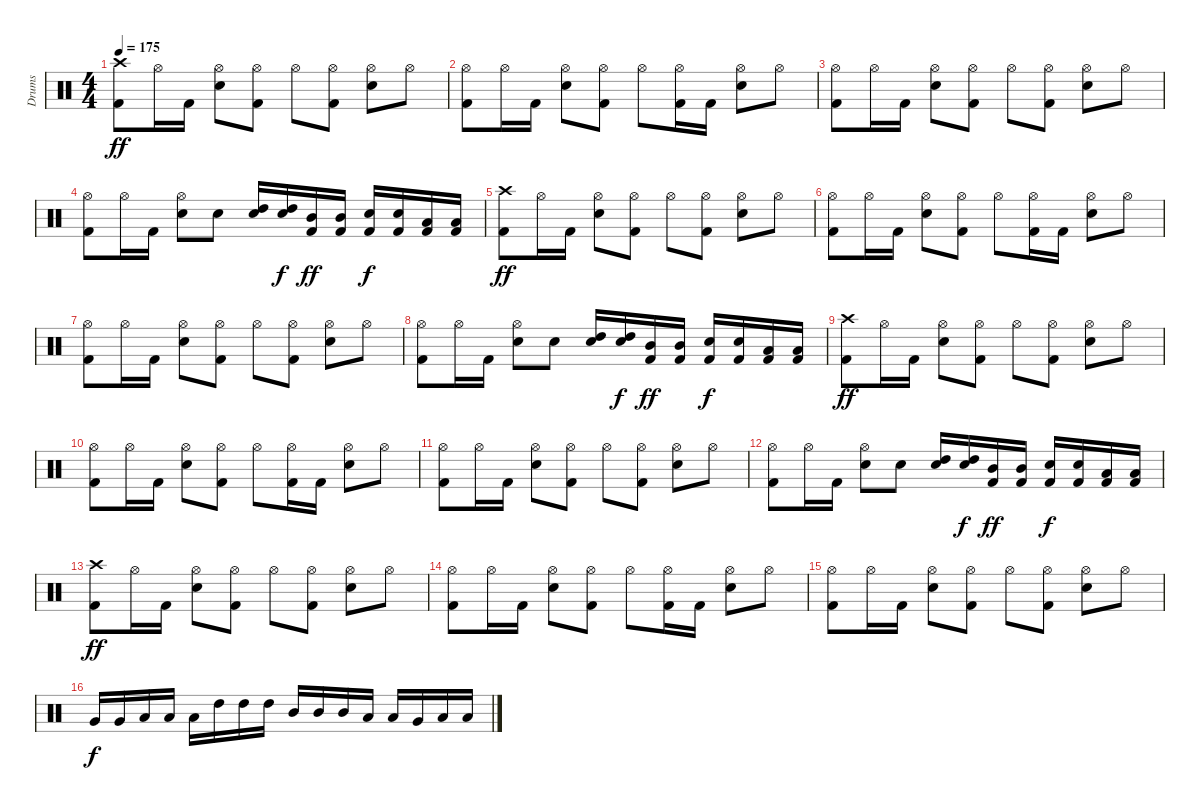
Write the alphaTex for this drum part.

\track ("Drums" "Drums") {instrument percussion}
\staff {score}
\articulation defaults
\ts (4 4)
\tempo 175
\clef neutral
\ks c
("Kick (hit) 2" "Crash high (hit)").8{dy ff} "Hi-Hat (open)".16 "Kick (hit) 2".16 ("Hi-Hat (open)" "Electric Snare (hit)").8 ("Kick (hit) 2" "Hi-Hat (open)").8 "Hi-Hat (open)".8 ("Kick (hit) 2" "Hi-Hat (open)").8 ("Hi-Hat (open)" "Electric Snare (hit)").8 "Hi-Hat (open)".8 |
("Kick (hit) 2" "Hi-Hat (open)").8 "Hi-Hat (open)".16 "Kick (hit) 2".16 ("Hi-Hat (open)" "Electric Snare (hit)").8 ("Kick (hit) 2" "Hi-Hat (open)").8 "Hi-Hat (open)".8 ("Kick (hit) 2" "Hi-Hat (open)").16 "Kick (hit) 2".16 ("Hi-Hat (open)" "Electric Snare (hit)").8 "Hi-Hat (open)".8 |
("Kick (hit) 2" "Hi-Hat (open)").8 "Hi-Hat (open)".16 "Kick (hit) 2".16 ("Hi-Hat (open)" "Electric Snare (hit)").8 ("Kick (hit) 2" "Hi-Hat (open)").8 "Hi-Hat (open)".8 ("Kick (hit) 2" "Hi-Hat (open)").8 ("Hi-Hat (open)" "Electric Snare (hit)").8 "Hi-Hat (open)".8 |
("Kick (hit) 2" "Hi-Hat (open)").8 "Hi-Hat (open)".16 "Kick (hit) 2".16 ("Hi-Hat (open)" "Electric Snare (hit)").8 "Snare (hit) 2".8 ("Electric Snare (hit)" "High Tom (hit)").16 ("Electric Snare (hit)" "High Tom (hit)").16{dy f} ("Kick (hit) 2" "Mid Tom (hit)").16{dy ff} ("Kick (hit) 2" "Mid Tom (hit)").16 ("Kick (hit) 2" "Electric Snare (hit)").16{dy f} ("Kick (hit) 2" "Electric Snare (hit)").16 ("Kick (hit) 2" "Low Tom (hit)").16 ("Kick (hit) 2" "Low Tom (hit)").16 |
("Kick (hit) 2" "Crash high (hit)").8{dy ff} "Hi-Hat (open)".16 "Kick (hit) 2".16 ("Hi-Hat (open)" "Electric Snare (hit)").8 ("Kick (hit) 2" "Hi-Hat (open)").8 "Hi-Hat (open)".8 ("Kick (hit) 2" "Hi-Hat (open)").8 ("Hi-Hat (open)" "Electric Snare (hit)").8 "Hi-Hat (open)".8 |
("Kick (hit) 2" "Hi-Hat (open)").8 "Hi-Hat (open)".16 "Kick (hit) 2".16 ("Hi-Hat (open)" "Electric Snare (hit)").8 ("Kick (hit) 2" "Hi-Hat (open)").8 "Hi-Hat (open)".8 ("Kick (hit) 2" "Hi-Hat (open)").16 "Kick (hit) 2".16 ("Hi-Hat (open)" "Electric Snare (hit)").8 "Hi-Hat (open)".8 |
("Kick (hit) 2" "Hi-Hat (open)").8 "Hi-Hat (open)".16 "Kick (hit) 2".16 ("Hi-Hat (open)" "Electric Snare (hit)").8 ("Kick (hit) 2" "Hi-Hat (open)").8 "Hi-Hat (open)".8 ("Kick (hit) 2" "Hi-Hat (open)").8 ("Hi-Hat (open)" "Electric Snare (hit)").8 "Hi-Hat (open)".8 |
("Kick (hit) 2" "Hi-Hat (open)").8 "Hi-Hat (open)".16 "Kick (hit) 2".16 ("Hi-Hat (open)" "Electric Snare (hit)").8 "Snare (hit) 2".8 ("Electric Snare (hit)" "High Tom (hit)").16 ("Electric Snare (hit)" "High Tom (hit)").16{dy f} ("Kick (hit) 2" "Mid Tom (hit)").16{dy ff} ("Kick (hit) 2" "Mid Tom (hit)").16 ("Kick (hit) 2" "Electric Snare (hit)").16{dy f} ("Kick (hit) 2" "Electric Snare (hit)").16 ("Kick (hit) 2" "Low Tom (hit)").16 ("Kick (hit) 2" "Low Tom (hit)").16 |
("Kick (hit) 2" "Crash high (hit)").8{dy ff} "Hi-Hat (open)".16 "Kick (hit) 2".16 ("Hi-Hat (open)" "Electric Snare (hit)").8 ("Kick (hit) 2" "Hi-Hat (open)").8 "Hi-Hat (open)".8 ("Kick (hit) 2" "Hi-Hat (open)").8 ("Hi-Hat (open)" "Electric Snare (hit)").8 "Hi-Hat (open)".8 |
("Kick (hit) 2" "Hi-Hat (open)").8 "Hi-Hat (open)".16 "Kick (hit) 2".16 ("Hi-Hat (open)" "Electric Snare (hit)").8 ("Kick (hit) 2" "Hi-Hat (open)").8 "Hi-Hat (open)".8 ("Kick (hit) 2" "Hi-Hat (open)").16 "Kick (hit) 2".16 ("Hi-Hat (open)" "Electric Snare (hit)").8 "Hi-Hat (open)".8 |
("Kick (hit) 2" "Hi-Hat (open)").8 "Hi-Hat (open)".16 "Kick (hit) 2".16 ("Hi-Hat (open)" "Electric Snare (hit)").8 ("Kick (hit) 2" "Hi-Hat (open)").8 "Hi-Hat (open)".8 ("Kick (hit) 2" "Hi-Hat (open)").8 ("Hi-Hat (open)" "Electric Snare (hit)").8 "Hi-Hat (open)".8 |
("Kick (hit) 2" "Hi-Hat (open)").8 "Hi-Hat (open)".16 "Kick (hit) 2".16 ("Hi-Hat (open)" "Electric Snare (hit)").8 "Snare (hit) 2".8 ("Electric Snare (hit)" "High Tom (hit)").16 ("Electric Snare (hit)" "High Tom (hit)").16{dy f} ("Kick (hit) 2" "Mid Tom (hit)").16{dy ff} ("Kick (hit) 2" "Mid Tom (hit)").16 ("Kick (hit) 2" "Electric Snare (hit)").16{dy f} ("Kick (hit) 2" "Electric Snare (hit)").16 ("Kick (hit) 2" "Low Tom (hit)").16 ("Kick (hit) 2" "Low Tom (hit)").16 |
("Kick (hit) 2" "Crash high (hit)").8{dy ff} "Hi-Hat (open)".16 "Kick (hit) 2".16 ("Hi-Hat (open)" "Electric Snare (hit)").8 ("Kick (hit) 2" "Hi-Hat (open)").8 "Hi-Hat (open)".8 ("Kick (hit) 2" "Hi-Hat (open)").8 ("Hi-Hat (open)" "Electric Snare (hit)").8 "Hi-Hat (open)".8 |
("Kick (hit) 2" "Hi-Hat (open)").8 "Hi-Hat (open)".16 "Kick (hit) 2".16 ("Hi-Hat (open)" "Electric Snare (hit)").8 ("Kick (hit) 2" "Hi-Hat (open)").8 "Hi-Hat (open)".8 ("Kick (hit) 2" "Hi-Hat (open)").16 "Kick (hit) 2".16 ("Hi-Hat (open)" "Electric Snare (hit)").8 "Hi-Hat (open)".8 |
("Kick (hit) 2" "Hi-Hat (open)").8 "Hi-Hat (open)".16 "Kick (hit) 2".16 ("Hi-Hat (open)" "Electric Snare (hit)").8 ("Kick (hit) 2" "Hi-Hat (open)").8 "Hi-Hat (open)".8 ("Kick (hit) 2" "Hi-Hat (open)").8 ("Hi-Hat (open)" "Electric Snare (hit)").8 "Hi-Hat (open)".8 |
"Very Low Tom (hit)".16{dy f} "Very Low Tom (hit)".16 "Low Tom (hit)".16 "Low Tom (hit)".16 "Low Tom (hit)".16 "High Tom (hit)".16 "High Tom (hit)".16 "High Tom (hit)".16 "Mid Tom (hit)".16 "Mid Tom (hit)".16 "Mid Tom (hit)".16 "Low Tom (hit)".16 "Low Tom (hit)".16 "Very Low Tom (hit)".16 "Low Floor Tom (hit)".16 "Low Floor Tom (hit)".16
